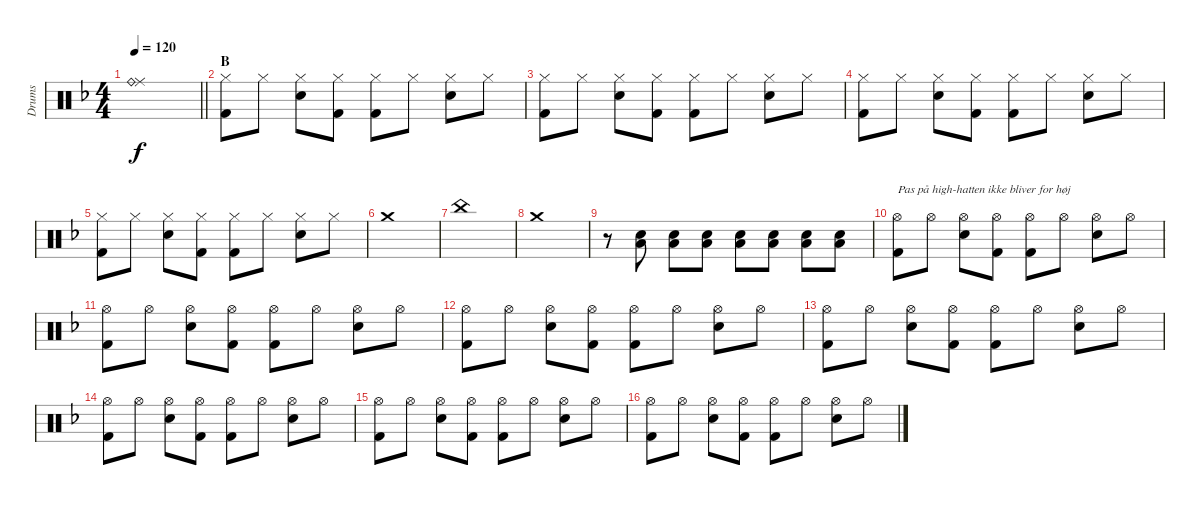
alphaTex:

\track ("Drums" "Drums") {instrument percussion}
\staff {score}
\articulation defaults
\ts (4 4)
\tempo 120
\clef neutral
\barLineRight lightlight
\ks f
("Ride (middle)" "Ride (bell)").1{dy f} |
\section ("" "B")
("Hi-Hat (closed)" "Kick (hit) 2").8 "Hi-Hat (closed)".8 ("Hi-Hat (closed)" "Snare (hit) 2").8 ("Hi-Hat (closed)" "Kick (hit) 2").8 ("Hi-Hat (closed)" "Kick (hit) 2").8 "Hi-Hat (closed)".8 ("Hi-Hat (closed)" "Snare (hit) 2").8 "Hi-Hat (closed)".8 |
("Hi-Hat (closed)" "Kick (hit) 2").8 "Hi-Hat (closed)".8 ("Hi-Hat (closed)" "Snare (hit) 2").8 ("Hi-Hat (closed)" "Kick (hit) 2").8 ("Hi-Hat (closed)" "Kick (hit) 2").8 "Hi-Hat (closed)".8 ("Hi-Hat (closed)" "Snare (hit) 2").8 "Hi-Hat (closed)".8 |
("Hi-Hat (closed)" "Kick (hit) 2").8 "Hi-Hat (closed)".8 ("Hi-Hat (closed)" "Snare (hit) 2").8 ("Hi-Hat (closed)" "Kick (hit) 2").8 ("Hi-Hat (closed)" "Kick (hit) 2").8 "Hi-Hat (closed)".8 ("Hi-Hat (closed)" "Snare (hit) 2").8 "Hi-Hat (closed)".8 |
("Hi-Hat (closed)" "Kick (hit) 2").8 "Hi-Hat (closed)".8 ("Hi-Hat (closed)" "Snare (hit) 2").8 ("Hi-Hat (closed)" "Kick (hit) 2").8 ("Hi-Hat (closed)" "Kick (hit) 2").8 "Hi-Hat (closed)".8 ("Hi-Hat (closed)" "Snare (hit) 2").8 "Hi-Hat (closed)".8 |
"Crash medium (hit)".1 |
"China (hit)".1 |
"Crash medium (hit)".1 |
r.8{volume 10} ("Snare (hit) 2" "Low Floor Tom (hit)").8 ("Snare (hit) 2" "Low Floor Tom (hit)").8 ("Snare (hit) 2" "Low Floor Tom (hit)").8 ("Snare (hit) 2" "Low Floor Tom (hit)").8 ("Snare (hit) 2" "Low Floor Tom (hit)").8 ("Snare (hit) 2" "Low Floor Tom (hit)").8 ("Snare (hit) 2" "Low Floor Tom (hit)").8 |
("Hi-Hat (open)" "Kick (hit) 2").8{txt "Pas på high-hatten ikke bliver for høj"} "Hi-Hat (open)".8 ("Hi-Hat (open)" "Snare (hit) 2").8 ("Hi-Hat (open)" "Kick (hit) 2").8 ("Hi-Hat (open)" "Kick (hit) 2").8 "Hi-Hat (open)".8 ("Hi-Hat (open)" "Snare (hit) 2").8 "Hi-Hat (open)".8 |
("Hi-Hat (open)" "Kick (hit) 2").8 "Hi-Hat (open)".8 ("Hi-Hat (open)" "Snare (hit) 2").8 ("Hi-Hat (open)" "Kick (hit) 2").8 ("Hi-Hat (open)" "Kick (hit) 2").8 "Hi-Hat (open)".8 ("Hi-Hat (open)" "Snare (hit) 2").8 "Hi-Hat (open)".8 |
("Hi-Hat (open)" "Kick (hit) 2").8 "Hi-Hat (open)".8 ("Hi-Hat (open)" "Snare (hit) 2").8 ("Hi-Hat (open)" "Kick (hit) 2").8 ("Hi-Hat (open)" "Kick (hit) 2").8 "Hi-Hat (open)".8 ("Hi-Hat (open)" "Snare (hit) 2").8 "Hi-Hat (open)".8 |
("Hi-Hat (open)" "Kick (hit) 2").8 "Hi-Hat (open)".8 ("Hi-Hat (open)" "Snare (hit) 2").8 ("Hi-Hat (open)" "Kick (hit) 2").8 ("Hi-Hat (open)" "Kick (hit) 2").8 "Hi-Hat (open)".8 ("Hi-Hat (open)" "Snare (hit) 2").8 "Hi-Hat (open)".8 |
("Hi-Hat (open)" "Kick (hit) 2").8 "Hi-Hat (open)".8 ("Hi-Hat (open)" "Snare (hit) 2").8 ("Hi-Hat (open)" "Kick (hit) 2").8 ("Hi-Hat (open)" "Kick (hit) 2").8 "Hi-Hat (open)".8 ("Hi-Hat (open)" "Snare (hit) 2").8 "Hi-Hat (open)".8 |
("Hi-Hat (open)" "Kick (hit) 2").8 "Hi-Hat (open)".8 ("Hi-Hat (open)" "Snare (hit) 2").8 ("Hi-Hat (open)" "Kick (hit) 2").8 ("Hi-Hat (open)" "Kick (hit) 2").8 "Hi-Hat (open)".8 ("Hi-Hat (open)" "Snare (hit) 2").8 "Hi-Hat (open)".8 |
("Hi-Hat (open)" "Kick (hit) 2").8 "Hi-Hat (open)".8 ("Hi-Hat (open)" "Snare (hit) 2").8 ("Hi-Hat (open)" "Kick (hit) 2").8 ("Hi-Hat (open)" "Kick (hit) 2").8 "Hi-Hat (open)".8 ("Hi-Hat (open)" "Snare (hit) 2").8 "Hi-Hat (open)".8
